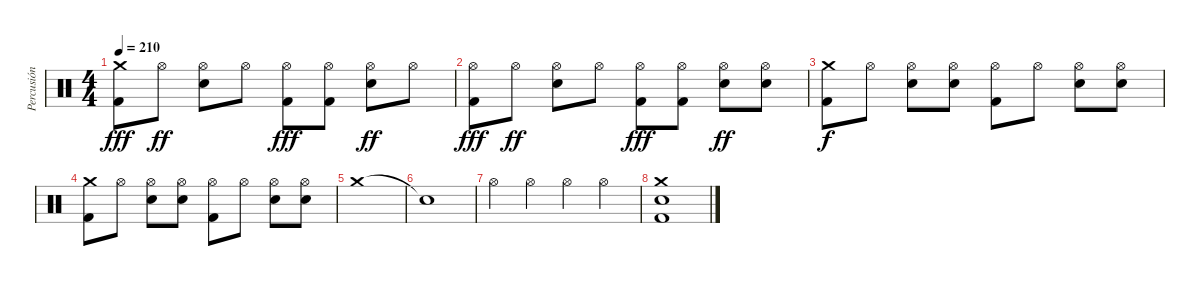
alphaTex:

\track ("Percusión" "Percusión") {instrument percussion}
\staff {score}
\articulation defaults
\ts (4 4)
\tempo 210
\clef neutral
\ks c
("Crash medium (hit)" "Kick (hit) 2").8{dy fff} "Hi-Hat (open)".8{dy ff} ("Hi-Hat (open)" "Electric Snare (hit)").8 "Hi-Hat (open)".8 ("Hi-Hat (open)" "Kick (hit) 2").8{dy fff} ("Hi-Hat (open)" "Kick (hit) 2").8 ("Hi-Hat (open)" "Electric Snare (hit)").8{dy ff} "Hi-Hat (open)".8 |
("Hi-Hat (open)" "Kick (hit) 2").8{dy fff} "Hi-Hat (open)".8{dy ff} ("Hi-Hat (open)" "Electric Snare (hit)").8 "Hi-Hat (open)".8 ("Hi-Hat (open)" "Kick (hit) 2").8{dy fff} ("Hi-Hat (open)" "Kick (hit) 2").8 ("Hi-Hat (open)" "Electric Snare (hit)").8{dy ff} ("Hi-Hat (open)" "Electric Snare (hit)").8 |
("Crash medium (hit)" "Kick (hit) 2").8{dy f} "Hi-Hat (open)".8 ("Hi-Hat (open)" "Electric Snare (hit)").8 ("Hi-Hat (open)" "Electric Snare (hit)").8 ("Hi-Hat (open)" "Kick (hit) 2").8 "Hi-Hat (open)".8 ("Hi-Hat (open)" "Electric Snare (hit)").8 ("Hi-Hat (open)" "Electric Snare (hit)").8 |
("Crash medium (hit)" "Kick (hit) 2").8 "Hi-Hat (open)".8 ("Hi-Hat (open)" "Electric Snare (hit)").8 ("Hi-Hat (open)" "Electric Snare (hit)").8 ("Hi-Hat (open)" "Kick (hit) 2").8 "Hi-Hat (open)".8 ("Hi-Hat (open)" "Electric Snare (hit)").8 ("Hi-Hat (open)" "Electric Snare (hit)").8 |
"Crash medium (hit)".1 |
"Snare (hit)"{t}.1 |
"Hi-Hat (open)".4 "Hi-Hat (open)".4 "Hi-Hat (open)".4 "Hi-Hat (open)".4 |
("Crash medium (hit)" "Electric Snare (hit)" "Kick (hit) 2").1
